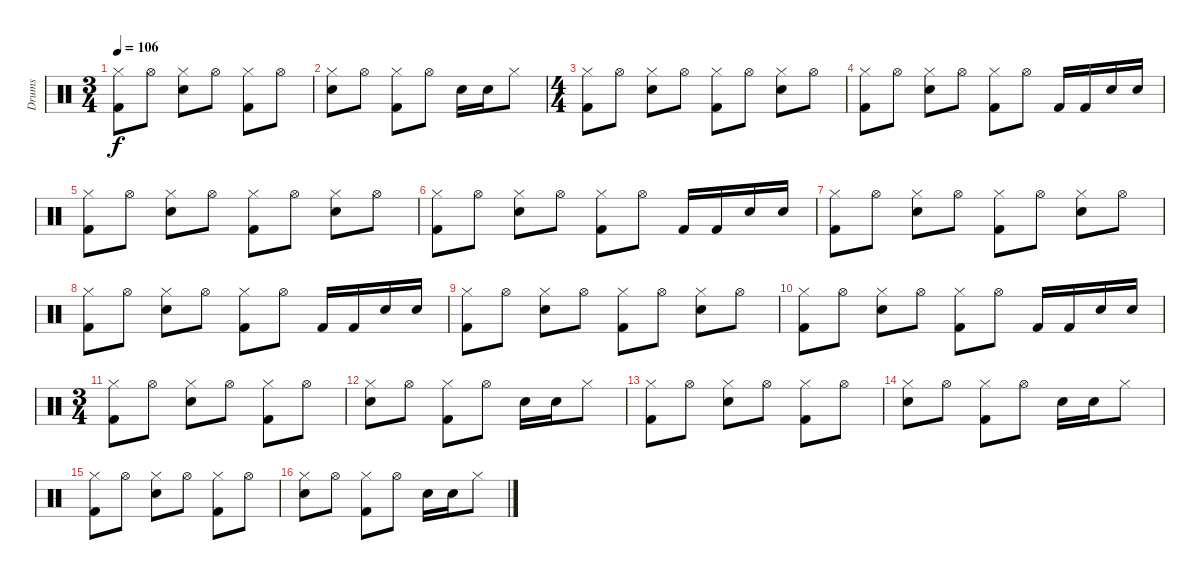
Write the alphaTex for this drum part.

\track ("Drums" "Drums") {instrument percussion}
\staff {score}
\articulation defaults
\ts (3 4)
\tempo 106
\clef neutral
\ks c
("Hi-Hat (closed)" "Kick (hit) 2").8{dy f} "Hi-Hat (open)".8 ("Hi-Hat (closed)" "Electric Snare (hit)").8 "Hi-Hat (open)".8 ("Hi-Hat (closed)" "Kick (hit) 2").8 "Hi-Hat (open)".8 |
("Hi-Hat (closed)" "Electric Snare (hit)").8 "Hi-Hat (open)".8 ("Hi-Hat (closed)" "Kick (hit) 2").8 "Hi-Hat (open)".8 "Electric Snare (hit)".16 "Electric Snare (hit)".16 "Hi-Hat (closed)".8 |
\ts (4 4)
("Hi-Hat (closed)" "Kick (hit) 2").8 "Hi-Hat (open)".8 ("Hi-Hat (closed)" "Electric Snare (hit)").8 "Hi-Hat (open)".8 ("Hi-Hat (closed)" "Kick (hit) 2").8 "Hi-Hat (open)".8 ("Hi-Hat (closed)" "Electric Snare (hit)").8 "Hi-Hat (open)".8 |
("Hi-Hat (closed)" "Kick (hit) 2").8 "Hi-Hat (open)".8 ("Hi-Hat (closed)" "Electric Snare (hit)").8 "Hi-Hat (open)".8 ("Hi-Hat (closed)" "Kick (hit) 2").8 "Hi-Hat (open)".8 "Kick (hit) 2".16 "Kick (hit) 2".16 "Electric Snare (hit)".16 "Electric Snare (hit)".16 |
("Hi-Hat (closed)" "Kick (hit) 2").8 "Hi-Hat (open)".8 ("Hi-Hat (closed)" "Electric Snare (hit)").8 "Hi-Hat (open)".8 ("Hi-Hat (closed)" "Kick (hit) 2").8 "Hi-Hat (open)".8 ("Hi-Hat (closed)" "Electric Snare (hit)").8 "Hi-Hat (open)".8 |
("Hi-Hat (closed)" "Kick (hit) 2").8 "Hi-Hat (open)".8 ("Hi-Hat (closed)" "Electric Snare (hit)").8 "Hi-Hat (open)".8 ("Hi-Hat (closed)" "Kick (hit) 2").8 "Hi-Hat (open)".8 "Kick (hit) 2".16 "Kick (hit) 2".16 "Electric Snare (hit)".16 "Electric Snare (hit)".16 |
("Hi-Hat (closed)" "Kick (hit) 2").8 "Hi-Hat (open)".8 ("Hi-Hat (closed)" "Electric Snare (hit)").8 "Hi-Hat (open)".8 ("Hi-Hat (closed)" "Kick (hit) 2").8 "Hi-Hat (open)".8 ("Hi-Hat (closed)" "Electric Snare (hit)").8 "Hi-Hat (open)".8 |
("Hi-Hat (closed)" "Kick (hit) 2").8 "Hi-Hat (open)".8 ("Hi-Hat (closed)" "Electric Snare (hit)").8 "Hi-Hat (open)".8 ("Hi-Hat (closed)" "Kick (hit) 2").8 "Hi-Hat (open)".8 "Kick (hit) 2".16 "Kick (hit) 2".16 "Electric Snare (hit)".16 "Electric Snare (hit)".16 |
("Hi-Hat (closed)" "Kick (hit) 2").8 "Hi-Hat (open)".8 ("Hi-Hat (closed)" "Electric Snare (hit)").8 "Hi-Hat (open)".8 ("Hi-Hat (closed)" "Kick (hit) 2").8 "Hi-Hat (open)".8 ("Hi-Hat (closed)" "Electric Snare (hit)").8 "Hi-Hat (open)".8 |
("Hi-Hat (closed)" "Kick (hit) 2").8 "Hi-Hat (open)".8 ("Hi-Hat (closed)" "Electric Snare (hit)").8 "Hi-Hat (open)".8 ("Hi-Hat (closed)" "Kick (hit) 2").8 "Hi-Hat (open)".8 "Kick (hit) 2".16 "Kick (hit) 2".16 "Electric Snare (hit)".16 "Electric Snare (hit)".16 |
\ts (3 4)
("Hi-Hat (closed)" "Kick (hit) 2").8 "Hi-Hat (open)".8 ("Hi-Hat (closed)" "Electric Snare (hit)").8 "Hi-Hat (open)".8 ("Hi-Hat (closed)" "Kick (hit) 2").8 "Hi-Hat (open)".8 |
("Hi-Hat (closed)" "Electric Snare (hit)").8 "Hi-Hat (open)".8 ("Hi-Hat (closed)" "Kick (hit) 2").8 "Hi-Hat (open)".8 "Electric Snare (hit)".16 "Electric Snare (hit)".16 "Hi-Hat (closed)".8 |
("Hi-Hat (closed)" "Kick (hit) 2").8 "Hi-Hat (open)".8 ("Hi-Hat (closed)" "Electric Snare (hit)").8 "Hi-Hat (open)".8 ("Hi-Hat (closed)" "Kick (hit) 2").8 "Hi-Hat (open)".8 |
("Hi-Hat (closed)" "Electric Snare (hit)").8 "Hi-Hat (open)".8 ("Hi-Hat (closed)" "Kick (hit) 2").8 "Hi-Hat (open)".8 "Electric Snare (hit)".16 "Electric Snare (hit)".16 "Hi-Hat (closed)".8 |
("Hi-Hat (closed)" "Kick (hit) 2").8 "Hi-Hat (open)".8 ("Hi-Hat (closed)" "Electric Snare (hit)").8 "Hi-Hat (open)".8 ("Hi-Hat (closed)" "Kick (hit) 2").8 "Hi-Hat (open)".8 |
("Hi-Hat (closed)" "Electric Snare (hit)").8 "Hi-Hat (open)".8 ("Hi-Hat (closed)" "Kick (hit) 2").8 "Hi-Hat (open)".8 "Electric Snare (hit)".16 "Electric Snare (hit)".16 "Hi-Hat (closed)".8
